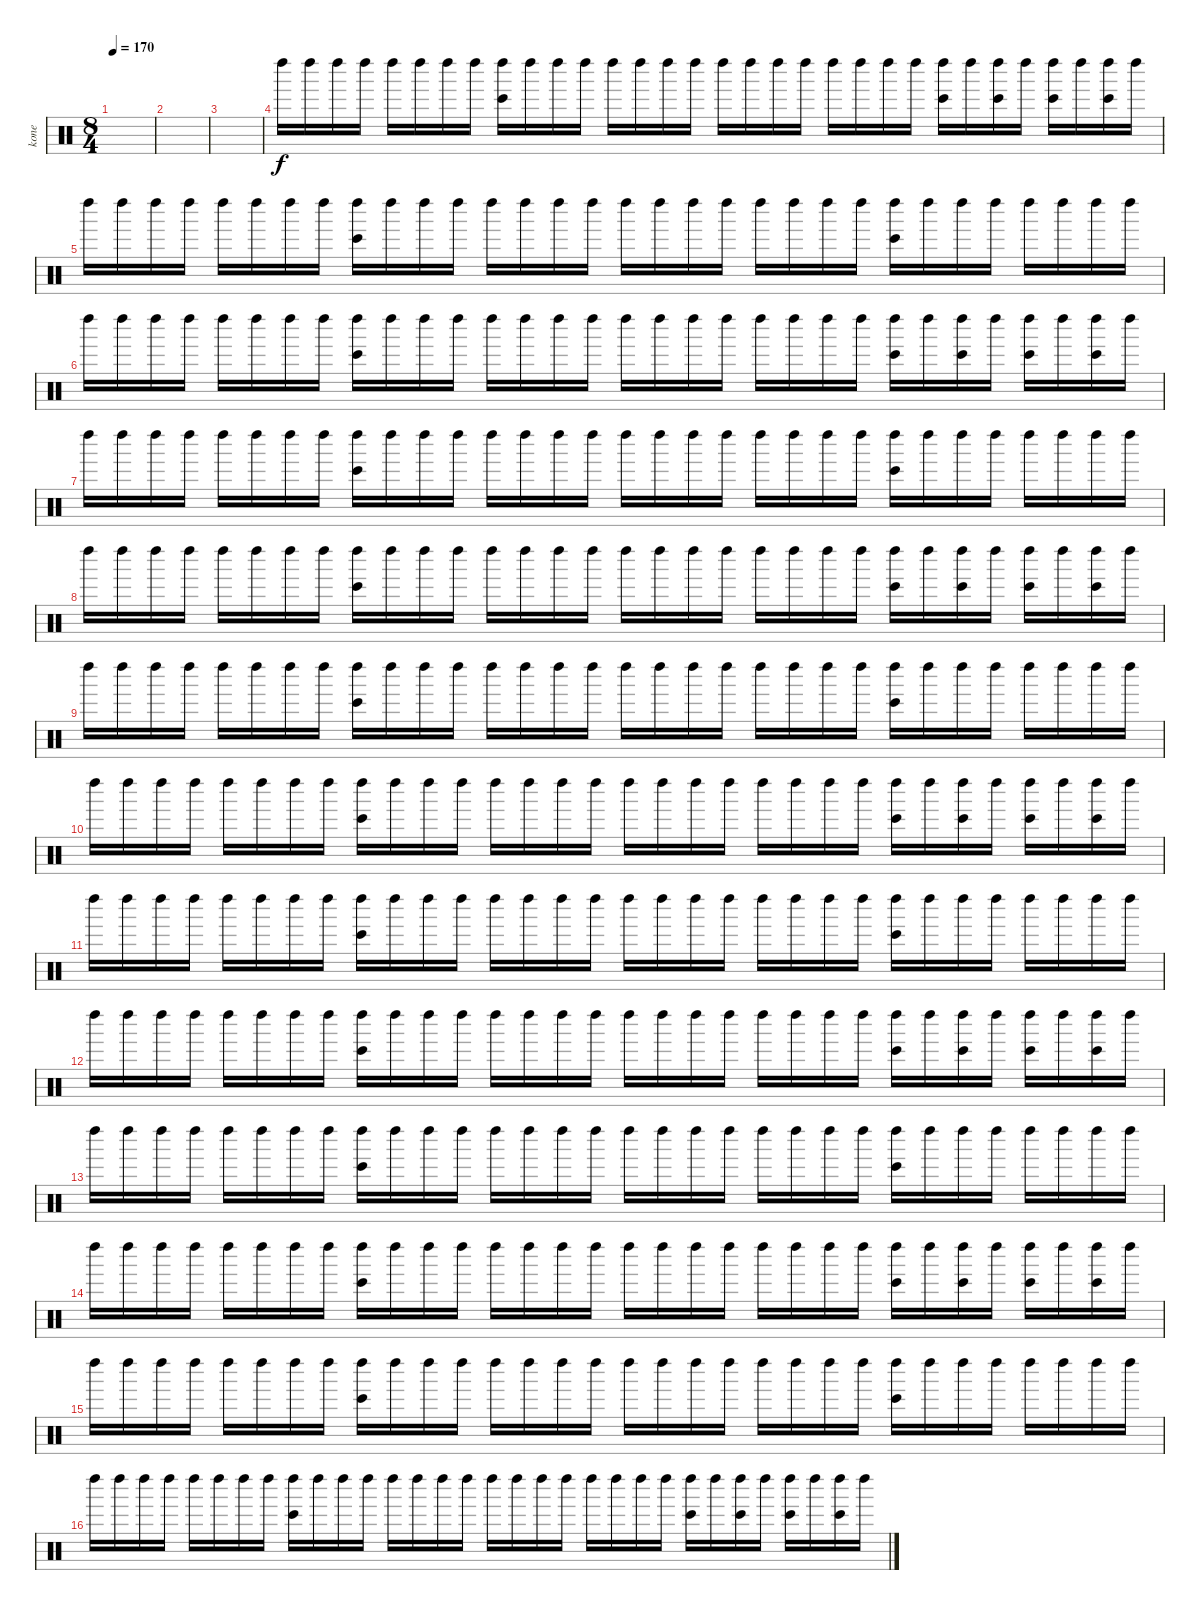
\track ("kone" "kone") {instrument percussion}
\staff {score}
\articulation defaults
\ts (8 4)
\tempo 170
\clef neutral
\ks c
|
|
|
"Left Maraca (hit)".16 "Left Maraca (hit)".16 "Left Maraca (hit)".16 "Left Maraca (hit)".16 "Left Maraca (hit)".16 "Left Maraca (hit)".16 "Left Maraca (hit)".16 "Left Maraca (hit)".16 ("Left Maraca (hit)" "Bongo High (hit)").16 "Left Maraca (hit)".16 "Left Maraca (hit)".16 "Left Maraca (hit)".16 "Left Maraca (hit)".16 "Left Maraca (hit)".16 "Left Maraca (hit)".16 "Left Maraca (hit)".16 "Left Maraca (hit)".16 "Left Maraca (hit)".16 "Left Maraca (hit)".16 "Left Maraca (hit)".16 "Left Maraca (hit)".16 "Left Maraca (hit)".16 "Left Maraca (hit)".16 "Left Maraca (hit)".16 ("Left Maraca (hit)" "Bongo High (hit)").16 "Left Maraca (hit)".16 ("Left Maraca (hit)" "Bongo High (hit)").16 "Left Maraca (hit)".16 ("Left Maraca (hit)" "Bongo High (hit)").16 "Left Maraca (hit)".16 ("Left Maraca (hit)" "Bongo High (hit)").16 "Left Maraca (hit)".16 |
"Left Maraca (hit)".16 "Left Maraca (hit)".16 "Left Maraca (hit)".16 "Left Maraca (hit)".16 "Left Maraca (hit)".16 "Left Maraca (hit)".16 "Left Maraca (hit)".16 "Left Maraca (hit)".16 ("Left Maraca (hit)" "Bongo High (hit)").16 "Left Maraca (hit)".16 "Left Maraca (hit)".16 "Left Maraca (hit)".16 "Left Maraca (hit)".16 "Left Maraca (hit)".16 "Left Maraca (hit)".16 "Left Maraca (hit)".16 "Left Maraca (hit)".16 "Left Maraca (hit)".16 "Left Maraca (hit)".16 "Left Maraca (hit)".16 "Left Maraca (hit)".16 "Left Maraca (hit)".16 "Left Maraca (hit)".16 "Left Maraca (hit)".16 ("Left Maraca (hit)" "Bongo High (hit)").16 "Left Maraca (hit)".16 "Left Maraca (hit)".16 "Left Maraca (hit)".16 "Left Maraca (hit)".16 "Left Maraca (hit)".16 "Left Maraca (hit)".16 "Left Maraca (hit)".16 |
"Left Maraca (hit)".16 "Left Maraca (hit)".16 "Left Maraca (hit)".16 "Left Maraca (hit)".16 "Left Maraca (hit)".16 "Left Maraca (hit)".16 "Left Maraca (hit)".16 "Left Maraca (hit)".16 ("Left Maraca (hit)" "Bongo High (hit)").16 "Left Maraca (hit)".16 "Left Maraca (hit)".16 "Left Maraca (hit)".16 "Left Maraca (hit)".16 "Left Maraca (hit)".16 "Left Maraca (hit)".16 "Left Maraca (hit)".16 "Left Maraca (hit)".16 "Left Maraca (hit)".16 "Left Maraca (hit)".16 "Left Maraca (hit)".16 "Left Maraca (hit)".16 "Left Maraca (hit)".16 "Left Maraca (hit)".16 "Left Maraca (hit)".16 ("Left Maraca (hit)" "Bongo High (hit)").16 "Left Maraca (hit)".16 ("Left Maraca (hit)" "Bongo High (hit)").16 "Left Maraca (hit)".16 ("Left Maraca (hit)" "Bongo High (hit)").16 "Left Maraca (hit)".16 ("Left Maraca (hit)" "Bongo High (hit)").16 "Left Maraca (hit)".16 |
"Left Maraca (hit)".16 "Left Maraca (hit)".16 "Left Maraca (hit)".16 "Left Maraca (hit)".16 "Left Maraca (hit)".16 "Left Maraca (hit)".16 "Left Maraca (hit)".16 "Left Maraca (hit)".16 ("Left Maraca (hit)" "Bongo High (hit)").16 "Left Maraca (hit)".16 "Left Maraca (hit)".16 "Left Maraca (hit)".16 "Left Maraca (hit)".16 "Left Maraca (hit)".16 "Left Maraca (hit)".16 "Left Maraca (hit)".16 "Left Maraca (hit)".16 "Left Maraca (hit)".16 "Left Maraca (hit)".16 "Left Maraca (hit)".16 "Left Maraca (hit)".16 "Left Maraca (hit)".16 "Left Maraca (hit)".16 "Left Maraca (hit)".16 ("Left Maraca (hit)" "Bongo High (hit)").16 "Left Maraca (hit)".16 "Left Maraca (hit)".16 "Left Maraca (hit)".16 "Left Maraca (hit)".16 "Left Maraca (hit)".16 "Left Maraca (hit)".16 "Left Maraca (hit)".16 |
"Left Maraca (hit)".16 "Left Maraca (hit)".16 "Left Maraca (hit)".16 "Left Maraca (hit)".16 "Left Maraca (hit)".16 "Left Maraca (hit)".16 "Left Maraca (hit)".16 "Left Maraca (hit)".16 ("Left Maraca (hit)" "Bongo High (hit)").16 "Left Maraca (hit)".16 "Left Maraca (hit)".16 "Left Maraca (hit)".16 "Left Maraca (hit)".16 "Left Maraca (hit)".16 "Left Maraca (hit)".16 "Left Maraca (hit)".16 "Left Maraca (hit)".16 "Left Maraca (hit)".16 "Left Maraca (hit)".16 "Left Maraca (hit)".16 "Left Maraca (hit)".16 "Left Maraca (hit)".16 "Left Maraca (hit)".16 "Left Maraca (hit)".16 ("Left Maraca (hit)" "Bongo High (hit)").16 "Left Maraca (hit)".16 ("Left Maraca (hit)" "Bongo High (hit)").16 "Left Maraca (hit)".16 ("Left Maraca (hit)" "Bongo High (hit)").16 "Left Maraca (hit)".16 ("Left Maraca (hit)" "Bongo High (hit)").16 "Left Maraca (hit)".16 |
"Left Maraca (hit)".16 "Left Maraca (hit)".16 "Left Maraca (hit)".16 "Left Maraca (hit)".16 "Left Maraca (hit)".16 "Left Maraca (hit)".16 "Left Maraca (hit)".16 "Left Maraca (hit)".16 ("Left Maraca (hit)" "Bongo High (hit)").16 "Left Maraca (hit)".16 "Left Maraca (hit)".16 "Left Maraca (hit)".16 "Left Maraca (hit)".16 "Left Maraca (hit)".16 "Left Maraca (hit)".16 "Left Maraca (hit)".16 "Left Maraca (hit)".16 "Left Maraca (hit)".16 "Left Maraca (hit)".16 "Left Maraca (hit)".16 "Left Maraca (hit)".16 "Left Maraca (hit)".16 "Left Maraca (hit)".16 "Left Maraca (hit)".16 ("Left Maraca (hit)" "Bongo High (hit)").16 "Left Maraca (hit)".16 "Left Maraca (hit)".16 "Left Maraca (hit)".16 "Left Maraca (hit)".16 "Left Maraca (hit)".16 "Left Maraca (hit)".16 "Left Maraca (hit)".16 |
"Left Maraca (hit)".16 "Left Maraca (hit)".16 "Left Maraca (hit)".16 "Left Maraca (hit)".16 "Left Maraca (hit)".16 "Left Maraca (hit)".16 "Left Maraca (hit)".16 "Left Maraca (hit)".16 ("Left Maraca (hit)" "Bongo High (hit)").16 "Left Maraca (hit)".16 "Left Maraca (hit)".16 "Left Maraca (hit)".16 "Left Maraca (hit)".16 "Left Maraca (hit)".16 "Left Maraca (hit)".16 "Left Maraca (hit)".16 "Left Maraca (hit)".16 "Left Maraca (hit)".16 "Left Maraca (hit)".16 "Left Maraca (hit)".16 "Left Maraca (hit)".16 "Left Maraca (hit)".16 "Left Maraca (hit)".16 "Left Maraca (hit)".16 ("Left Maraca (hit)" "Bongo High (hit)").16 "Left Maraca (hit)".16 ("Left Maraca (hit)" "Bongo High (hit)").16 "Left Maraca (hit)".16 ("Left Maraca (hit)" "Bongo High (hit)").16 "Left Maraca (hit)".16 ("Left Maraca (hit)" "Bongo High (hit)").16 "Left Maraca (hit)".16 |
"Left Maraca (hit)".16 "Left Maraca (hit)".16 "Left Maraca (hit)".16 "Left Maraca (hit)".16 "Left Maraca (hit)".16 "Left Maraca (hit)".16 "Left Maraca (hit)".16 "Left Maraca (hit)".16 ("Left Maraca (hit)" "Bongo High (hit)").16 "Left Maraca (hit)".16 "Left Maraca (hit)".16 "Left Maraca (hit)".16 "Left Maraca (hit)".16 "Left Maraca (hit)".16 "Left Maraca (hit)".16 "Left Maraca (hit)".16 "Left Maraca (hit)".16 "Left Maraca (hit)".16 "Left Maraca (hit)".16 "Left Maraca (hit)".16 "Left Maraca (hit)".16 "Left Maraca (hit)".16 "Left Maraca (hit)".16 "Left Maraca (hit)".16 ("Left Maraca (hit)" "Bongo High (hit)").16 "Left Maraca (hit)".16 "Left Maraca (hit)".16 "Left Maraca (hit)".16 "Left Maraca (hit)".16 "Left Maraca (hit)".16 "Left Maraca (hit)".16 "Left Maraca (hit)".16 |
"Left Maraca (hit)".16 "Left Maraca (hit)".16 "Left Maraca (hit)".16 "Left Maraca (hit)".16 "Left Maraca (hit)".16 "Left Maraca (hit)".16 "Left Maraca (hit)".16 "Left Maraca (hit)".16 ("Left Maraca (hit)" "Bongo High (hit)").16 "Left Maraca (hit)".16 "Left Maraca (hit)".16 "Left Maraca (hit)".16 "Left Maraca (hit)".16 "Left Maraca (hit)".16 "Left Maraca (hit)".16 "Left Maraca (hit)".16 "Left Maraca (hit)".16 "Left Maraca (hit)".16 "Left Maraca (hit)".16 "Left Maraca (hit)".16 "Left Maraca (hit)".16 "Left Maraca (hit)".16 "Left Maraca (hit)".16 "Left Maraca (hit)".16 ("Left Maraca (hit)" "Bongo High (hit)").16 "Left Maraca (hit)".16 ("Left Maraca (hit)" "Bongo High (hit)").16 "Left Maraca (hit)".16 ("Left Maraca (hit)" "Bongo High (hit)").16 "Left Maraca (hit)".16 ("Left Maraca (hit)" "Bongo High (hit)").16 "Left Maraca (hit)".16 |
"Left Maraca (hit)".16 "Left Maraca (hit)".16 "Left Maraca (hit)".16 "Left Maraca (hit)".16 "Left Maraca (hit)".16 "Left Maraca (hit)".16 "Left Maraca (hit)".16 "Left Maraca (hit)".16 ("Left Maraca (hit)" "Bongo High (hit)").16 "Left Maraca (hit)".16 "Left Maraca (hit)".16 "Left Maraca (hit)".16 "Left Maraca (hit)".16 "Left Maraca (hit)".16 "Left Maraca (hit)".16 "Left Maraca (hit)".16 "Left Maraca (hit)".16 "Left Maraca (hit)".16 "Left Maraca (hit)".16 "Left Maraca (hit)".16 "Left Maraca (hit)".16 "Left Maraca (hit)".16 "Left Maraca (hit)".16 "Left Maraca (hit)".16 ("Left Maraca (hit)" "Bongo High (hit)").16 "Left Maraca (hit)".16 "Left Maraca (hit)".16 "Left Maraca (hit)".16 "Left Maraca (hit)".16 "Left Maraca (hit)".16 "Left Maraca (hit)".16 "Left Maraca (hit)".16 |
"Left Maraca (hit)".16 "Left Maraca (hit)".16 "Left Maraca (hit)".16 "Left Maraca (hit)".16 "Left Maraca (hit)".16 "Left Maraca (hit)".16 "Left Maraca (hit)".16 "Left Maraca (hit)".16 ("Left Maraca (hit)" "Bongo High (hit)").16 "Left Maraca (hit)".16 "Left Maraca (hit)".16 "Left Maraca (hit)".16 "Left Maraca (hit)".16 "Left Maraca (hit)".16 "Left Maraca (hit)".16 "Left Maraca (hit)".16 "Left Maraca (hit)".16 "Left Maraca (hit)".16 "Left Maraca (hit)".16 "Left Maraca (hit)".16 "Left Maraca (hit)".16 "Left Maraca (hit)".16 "Left Maraca (hit)".16 "Left Maraca (hit)".16 ("Left Maraca (hit)" "Bongo High (hit)").16 "Left Maraca (hit)".16 ("Left Maraca (hit)" "Bongo High (hit)").16 "Left Maraca (hit)".16 ("Left Maraca (hit)" "Bongo High (hit)").16 "Left Maraca (hit)".16 ("Left Maraca (hit)" "Bongo High (hit)").16 "Left Maraca (hit)".16 |
"Left Maraca (hit)".16 "Left Maraca (hit)".16 "Left Maraca (hit)".16 "Left Maraca (hit)".16 "Left Maraca (hit)".16 "Left Maraca (hit)".16 "Left Maraca (hit)".16 "Left Maraca (hit)".16 ("Left Maraca (hit)" "Bongo High (hit)").16 "Left Maraca (hit)".16 "Left Maraca (hit)".16 "Left Maraca (hit)".16 "Left Maraca (hit)".16 "Left Maraca (hit)".16 "Left Maraca (hit)".16 "Left Maraca (hit)".16 "Left Maraca (hit)".16 "Left Maraca (hit)".16 "Left Maraca (hit)".16 "Left Maraca (hit)".16 "Left Maraca (hit)".16 "Left Maraca (hit)".16 "Left Maraca (hit)".16 "Left Maraca (hit)".16 ("Left Maraca (hit)" "Bongo High (hit)").16 "Left Maraca (hit)".16 "Left Maraca (hit)".16 "Left Maraca (hit)".16 "Left Maraca (hit)".16 "Left Maraca (hit)".16 "Left Maraca (hit)".16 "Left Maraca (hit)".16 |
"Left Maraca (hit)".16 "Left Maraca (hit)".16 "Left Maraca (hit)".16 "Left Maraca (hit)".16 "Left Maraca (hit)".16 "Left Maraca (hit)".16 "Left Maraca (hit)".16 "Left Maraca (hit)".16 ("Left Maraca (hit)" "Bongo High (hit)").16 "Left Maraca (hit)".16 "Left Maraca (hit)".16 "Left Maraca (hit)".16 "Left Maraca (hit)".16 "Left Maraca (hit)".16 "Left Maraca (hit)".16 "Left Maraca (hit)".16 "Left Maraca (hit)".16 "Left Maraca (hit)".16 "Left Maraca (hit)".16 "Left Maraca (hit)".16 "Left Maraca (hit)".16 "Left Maraca (hit)".16 "Left Maraca (hit)".16 "Left Maraca (hit)".16 ("Left Maraca (hit)" "Bongo High (hit)").16 "Left Maraca (hit)".16 ("Left Maraca (hit)" "Bongo High (hit)").16 "Left Maraca (hit)".16 ("Left Maraca (hit)" "Bongo High (hit)").16 "Left Maraca (hit)".16 ("Left Maraca (hit)" "Bongo High (hit)").16 "Left Maraca (hit)".16
